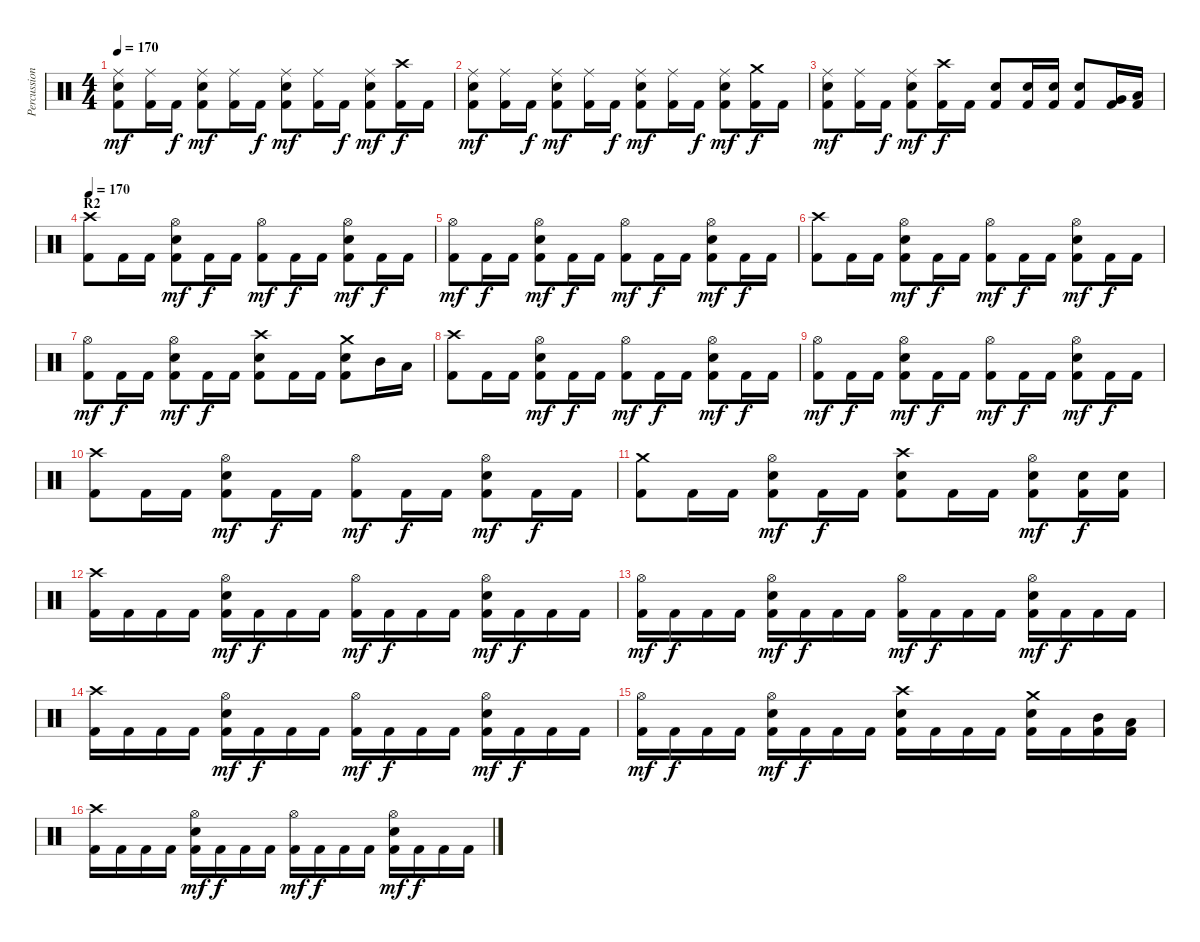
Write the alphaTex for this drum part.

\track ("Percussion" "Percussion") {instrument percussion}
\staff {score}
\articulation defaults
\ts (4 4)
\tempo 170
\clef neutral
\ks c
("Ride (middle)" "Electric Snare (hit)" "Kick (hit) 2").8{dy mf} ("Ride (middle)" "Kick (hit) 2").16 "Kick (hit) 2".16{dy f} ("Ride (middle)" "Electric Snare (hit)" "Kick (hit) 2").8{dy mf} ("Ride (middle)" "Kick (hit) 2").16 "Kick (hit) 2".16{dy f} ("Ride (middle)" "Electric Snare (hit)" "Kick (hit) 2").8{dy mf} ("Ride (middle)" "Kick (hit) 2").16 "Kick (hit) 2".16{dy f} ("Ride (middle)" "Electric Snare (hit)" "Kick (hit) 2").8{dy mf} ("Crash high (hit)" "Kick (hit) 2").16{dy f} "Kick (hit) 2".16 |
("Ride (middle)" "Electric Snare (hit)" "Kick (hit) 2").8{dy mf} ("Ride (middle)" "Kick (hit) 2").16 "Kick (hit) 2".16{dy f} ("Ride (middle)" "Electric Snare (hit)" "Kick (hit) 2").8{dy mf} ("Ride (middle)" "Kick (hit) 2").16 "Kick (hit) 2".16{dy f} ("Ride (middle)" "Electric Snare (hit)" "Kick (hit) 2").8{dy mf} ("Ride (middle)" "Kick (hit) 2").16 "Kick (hit) 2".16{dy f} ("Ride (middle)" "Electric Snare (hit)" "Kick (hit) 2").8{dy mf} ("Crash medium (hit)" "Kick (hit) 2").16{dy f} "Kick (hit) 2".16 |
("Ride (middle)" "Electric Snare (hit)" "Kick (hit) 2").8{dy mf} ("Ride (middle)" "Kick (hit) 2").16 "Kick (hit) 2".16{dy f} ("Ride (middle)" "Electric Snare (hit)" "Kick (hit) 2").8{dy mf} ("Crash high (hit)" "Kick (hit) 2").16{dy f} "Kick (hit) 2".16 ("Electric Snare (hit)" "Kick (hit) 2").8 ("Electric Snare (hit)" "Kick (hit) 2").16 ("Electric Snare (hit)" "Kick (hit) 2").16 ("Electric Snare (hit)" "Kick (hit) 2").8 ("Very Low Tom (hit)" "Kick (hit) 2").16 ("Low Floor Tom (hit)" "Kick (hit) 2").16 |
\section ("" "R2")
\tempo 170
("Crash high (hit)" "Kick (hit) 2").8 "Kick (hit) 2".16 "Kick (hit) 2".16 ("Hi-Hat (open)" "Electric Snare (hit)" "Kick (hit) 2").8{dy mf} "Kick (hit) 2".16{dy f} "Kick (hit) 2".16 ("Hi-Hat (open)" "Kick (hit) 2").8{dy mf} "Kick (hit) 2".16{dy f} "Kick (hit) 2".16 ("Hi-Hat (open)" "Electric Snare (hit)" "Kick (hit) 2").8{dy mf} "Kick (hit) 2".16{dy f} "Kick (hit) 2".16 |
("Hi-Hat (open)" "Kick (hit) 2").8{dy mf} "Kick (hit) 2".16{dy f} "Kick (hit) 2".16 ("Hi-Hat (open)" "Electric Snare (hit)" "Kick (hit) 2").8{dy mf} "Kick (hit) 2".16{dy f} "Kick (hit) 2".16 ("Hi-Hat (open)" "Kick (hit) 2").8{dy mf} "Kick (hit) 2".16{dy f} "Kick (hit) 2".16 ("Hi-Hat (open)" "Electric Snare (hit)" "Kick (hit) 2").8{dy mf} "Kick (hit) 2".16{dy f} "Kick (hit) 2".16 |
("Crash high (hit)" "Kick (hit) 2").8 "Kick (hit) 2".16 "Kick (hit) 2".16 ("Hi-Hat (open)" "Electric Snare (hit)" "Kick (hit) 2").8{dy mf} "Kick (hit) 2".16{dy f} "Kick (hit) 2".16 ("Hi-Hat (open)" "Kick (hit) 2").8{dy mf} "Kick (hit) 2".16{dy f} "Kick (hit) 2".16 ("Hi-Hat (open)" "Electric Snare (hit)" "Kick (hit) 2").8{dy mf} "Kick (hit) 2".16{dy f} "Kick (hit) 2".16 |
("Hi-Hat (open)" "Kick (hit) 2").8{dy mf} "Kick (hit) 2".16{dy f} "Kick (hit) 2".16 ("Hi-Hat (open)" "Electric Snare (hit)" "Kick (hit) 2").8{dy mf} "Kick (hit) 2".16{dy f} "Kick (hit) 2".16 ("Crash high (hit)" "Electric Snare (hit)" "Kick (hit) 2").8 "Kick (hit) 2".16 "Kick (hit) 2".16 ("Crash medium (hit)" "Electric Snare (hit)" "Kick (hit) 2").8 "Mid Tom (hit)".16 "Low Tom (hit)".16 |
("Crash high (hit)" "Kick (hit) 2").8 "Kick (hit) 2".16 "Kick (hit) 2".16 ("Hi-Hat (open)" "Electric Snare (hit)" "Kick (hit) 2").8{dy mf} "Kick (hit) 2".16{dy f} "Kick (hit) 2".16 ("Hi-Hat (open)" "Kick (hit) 2").8{dy mf} "Kick (hit) 2".16{dy f} "Kick (hit) 2".16 ("Hi-Hat (open)" "Electric Snare (hit)" "Kick (hit) 2").8{dy mf} "Kick (hit) 2".16{dy f} "Kick (hit) 2".16 |
("Hi-Hat (open)" "Kick (hit) 2").8{dy mf} "Kick (hit) 2".16{dy f} "Kick (hit) 2".16 ("Hi-Hat (open)" "Electric Snare (hit)" "Kick (hit) 2").8{dy mf} "Kick (hit) 2".16{dy f} "Kick (hit) 2".16 ("Hi-Hat (open)" "Kick (hit) 2").8{dy mf} "Kick (hit) 2".16{dy f} "Kick (hit) 2".16 ("Hi-Hat (open)" "Electric Snare (hit)" "Kick (hit) 2").8{dy mf} "Kick (hit) 2".16{dy f} "Kick (hit) 2".16 |
("Crash high (hit)" "Kick (hit) 2").8 "Kick (hit) 2".16 "Kick (hit) 2".16 ("Hi-Hat (open)" "Electric Snare (hit)" "Kick (hit) 2").8{dy mf} "Kick (hit) 2".16{dy f} "Kick (hit) 2".16 ("Hi-Hat (open)" "Kick (hit) 2").8{dy mf} "Kick (hit) 2".16{dy f} "Kick (hit) 2".16 ("Hi-Hat (open)" "Electric Snare (hit)" "Kick (hit) 2").8{dy mf} "Kick (hit) 2".16{dy f} "Kick (hit) 2".16 |
("Crash medium (hit)" "Kick (hit) 2").8 "Kick (hit) 2".16 "Kick (hit) 2".16 ("Hi-Hat (open)" "Electric Snare (hit)" "Kick (hit) 2").8{dy mf} "Kick (hit) 2".16{dy f} "Kick (hit) 2".16 ("Crash high (hit)" "Electric Snare (hit)" "Kick (hit) 2").8 "Kick (hit) 2".16 "Kick (hit) 2".16 ("Hi-Hat (open)" "Electric Snare (hit)" "Kick (hit) 2").8{dy mf} ("Electric Snare (hit)" "Kick (hit) 2").16{dy f} ("Electric Snare (hit)" "Kick (hit) 2").16 |
\section ("" "")
("Crash high (hit)" "Kick (hit) 2").16 "Kick (hit) 2".16 "Kick (hit) 2".16 "Kick (hit) 2".16 ("Hi-Hat (open)" "Electric Snare (hit)" "Kick (hit) 2").16{dy mf} "Kick (hit) 2".16{dy f} "Kick (hit) 2".16 "Kick (hit) 2".16 ("Hi-Hat (open)" "Kick (hit) 2").16{dy mf} "Kick (hit) 2".16{dy f} "Kick (hit) 2".16 "Kick (hit) 2".16 ("Hi-Hat (open)" "Electric Snare (hit)" "Kick (hit) 2").16{dy mf} "Kick (hit) 2".16{dy f} "Kick (hit) 2".16 "Kick (hit) 2".16 |
("Hi-Hat (open)" "Kick (hit) 2").16{dy mf} "Kick (hit) 2".16{dy f} "Kick (hit) 2".16 "Kick (hit) 2".16 ("Hi-Hat (open)" "Electric Snare (hit)" "Kick (hit) 2").16{dy mf} "Kick (hit) 2".16{dy f} "Kick (hit) 2".16 "Kick (hit) 2".16 ("Hi-Hat (open)" "Kick (hit) 2").16{dy mf} "Kick (hit) 2".16{dy f} "Kick (hit) 2".16 "Kick (hit) 2".16 ("Hi-Hat (open)" "Electric Snare (hit)" "Kick (hit) 2").16{dy mf} "Kick (hit) 2".16{dy f} "Kick (hit) 2".16 "Kick (hit) 2".16 |
("Crash high (hit)" "Kick (hit) 2").16 "Kick (hit) 2".16 "Kick (hit) 2".16 "Kick (hit) 2".16 ("Hi-Hat (open)" "Electric Snare (hit)" "Kick (hit) 2").16{dy mf} "Kick (hit) 2".16{dy f} "Kick (hit) 2".16 "Kick (hit) 2".16 ("Hi-Hat (open)" "Kick (hit) 2").16{dy mf} "Kick (hit) 2".16{dy f} "Kick (hit) 2".16 "Kick (hit) 2".16 ("Hi-Hat (open)" "Electric Snare (hit)" "Kick (hit) 2").16{dy mf} "Kick (hit) 2".16{dy f} "Kick (hit) 2".16 "Kick (hit) 2".16 |
("Hi-Hat (open)" "Kick (hit) 2").16{dy mf} "Kick (hit) 2".16{dy f} "Kick (hit) 2".16 "Kick (hit) 2".16 ("Hi-Hat (open)" "Electric Snare (hit)" "Kick (hit) 2").16{dy mf} "Kick (hit) 2".16{dy f} "Kick (hit) 2".16 "Kick (hit) 2".16 ("Crash high (hit)" "Electric Snare (hit)" "Kick (hit) 2").16 "Kick (hit) 2".16 "Kick (hit) 2".16 "Kick (hit) 2".16 ("Crash medium (hit)" "Electric Snare (hit)" "Kick (hit) 2").16 "Kick (hit) 2".16 ("Mid Tom (hit)" "Kick (hit) 2").16 ("Low Tom (hit)" "Kick (hit) 2").16 |
("Crash high (hit)" "Kick (hit) 2").16 "Kick (hit) 2".16 "Kick (hit) 2".16 "Kick (hit) 2".16 ("Hi-Hat (open)" "Electric Snare (hit)" "Kick (hit) 2").16{dy mf} "Kick (hit) 2".16{dy f} "Kick (hit) 2".16 "Kick (hit) 2".16 ("Hi-Hat (open)" "Kick (hit) 2").16{dy mf} "Kick (hit) 2".16{dy f} "Kick (hit) 2".16 "Kick (hit) 2".16 ("Hi-Hat (open)" "Electric Snare (hit)" "Kick (hit) 2").16{dy mf} "Kick (hit) 2".16{dy f} "Kick (hit) 2".16 "Kick (hit) 2".16
